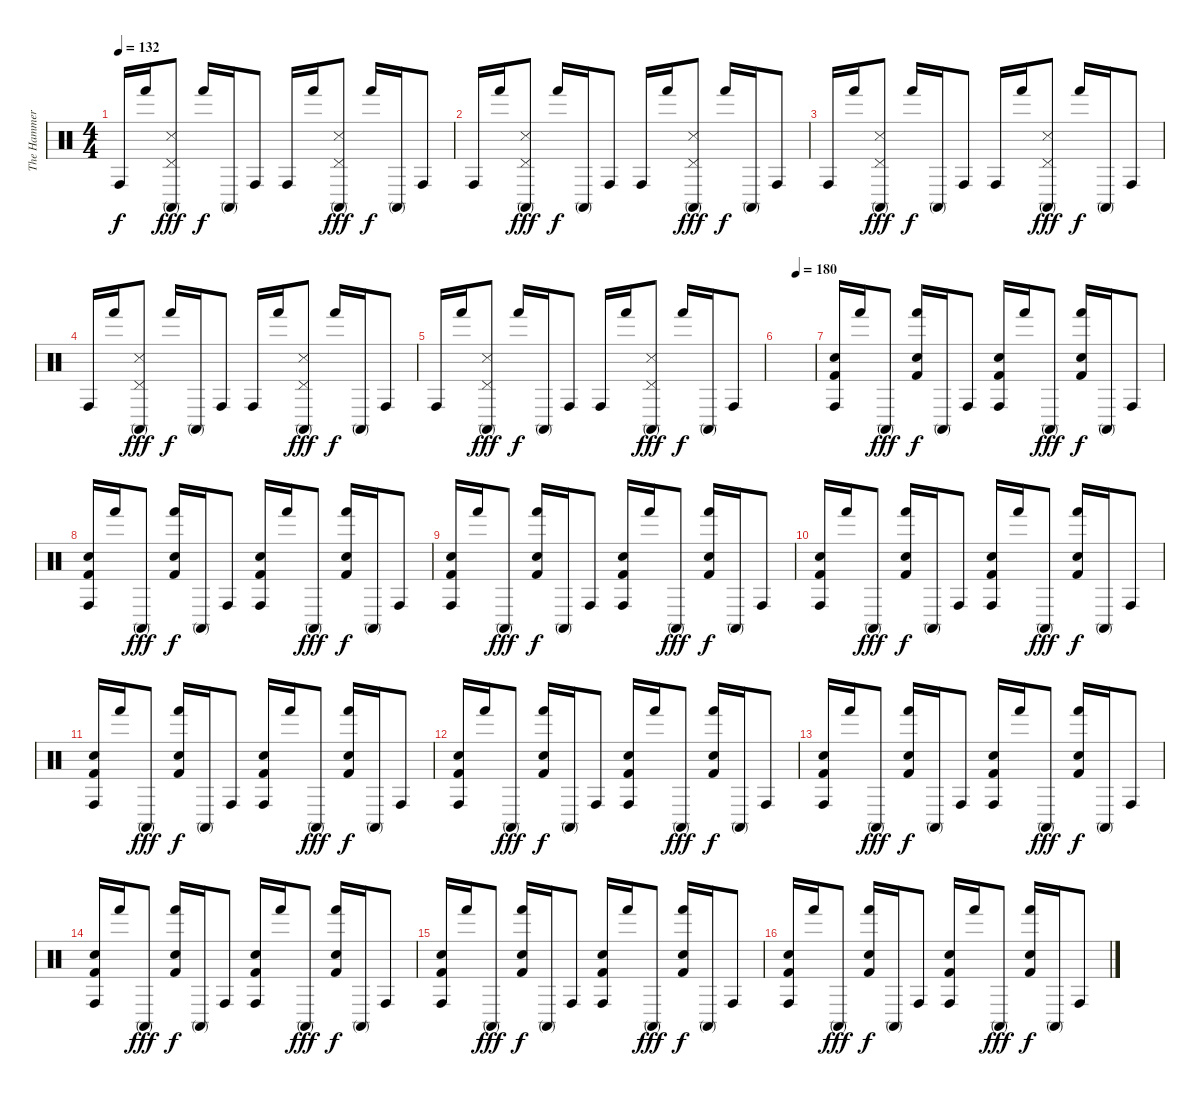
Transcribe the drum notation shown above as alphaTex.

\track ("The Hammer" "The Hammer") {instrument percussion}
\staff {score}
\articulation defaults
\ts (4 4)
\tempo 132
\clef neutral
\ks c "Conga high (hit)".16{dy f} "Hand (hit)".16
("Conga high (mute)" "Metronome (hit)" "Pedal Hi-Hat (hit)").8{dy fff} "Hand (hit)".16{dy f} "Conga high (mute)".16 "Conga high (hit)".8 "Conga high (hit)".16 "Hand (hit)".16 ("Conga high (mute)" "Metronome (hit)" "Pedal Hi-Hat (hit)").8{dy fff} "Hand (hit)".16{dy f} "Conga high (mute)".16 "Conga high (hit)".8 |
"Conga high (hit)".16 "Hand (hit)".16 ("Conga high (mute)" "Metronome (hit)" "Pedal Hi-Hat (hit)").8{dy fff} "Hand (hit)".16{dy f} "Conga high (mute)".16 "Conga high (hit)".8 "Conga high (hit)".16 "Hand (hit)".16 ("Conga high (mute)" "Metronome (hit)" "Pedal Hi-Hat (hit)").8{dy fff} "Hand (hit)".16{dy f} "Conga high (mute)".16 "Conga high (hit)".8 |
"Conga high (hit)".16 "Hand (hit)".16 ("Conga high (mute)" "Metronome (hit)" "Pedal Hi-Hat (hit)").8{dy fff} "Hand (hit)".16{dy f} "Conga high (mute)".16 "Conga high (hit)".8 "Conga high (hit)".16 "Hand (hit)".16 ("Conga high (mute)" "Metronome (hit)" "Pedal Hi-Hat (hit)").8{dy fff} "Hand (hit)".16{dy f} "Conga high (mute)".16 "Conga high (hit)".8 |
"Conga high (hit)".16 "Hand (hit)".16 ("Conga high (mute)" "Metronome (hit)" "Pedal Hi-Hat (hit)").8{dy fff} "Hand (hit)".16{dy f} "Conga high (mute)".16 "Conga high (hit)".8 "Conga high (hit)".16 "Hand (hit)".16 ("Conga high (mute)" "Metronome (hit)" "Pedal Hi-Hat (hit)").8{dy fff} "Hand (hit)".16{dy f} "Conga high (mute)".16 "Conga high (hit)".8 |
"Conga high (hit)".16 "Hand (hit)".16 ("Conga high (mute)" "Metronome (hit)" "Pedal Hi-Hat (hit)").8{dy fff} "Hand (hit)".16{dy f} "Conga high (mute)".16 "Conga high (hit)".8 "Conga high (hit)".16 "Hand (hit)".16 ("Conga high (mute)" "Metronome (hit)" "Pedal Hi-Hat (hit)").8{dy fff} "Hand (hit)".16{dy f} "Conga high (mute)".16 "Conga high (hit)".8 |
\tempo (180 0.5)
|
("Conga high (hit)" "Hand Clap (hit)" "Kick (hit) 2").16 "Hand (hit)".16 "Conga high (mute)".8{dy fff} ("Hand (hit)" "Hand Clap (hit)" "Kick (hit) 2").16{dy f} "Conga high (mute)".16 "Conga high (hit)".8 ("Conga high (hit)" "Hand Clap (hit)" "Kick (hit) 2").16 "Hand (hit)".16 "Conga high (mute)".8{dy fff} ("Hand (hit)" "Hand Clap (hit)" "Kick (hit) 2").16{dy f} "Conga high (mute)".16 "Conga high (hit)".8 |
("Conga high (hit)" "Hand Clap (hit)" "Kick (hit) 2").16 "Hand (hit)".16 "Conga high (mute)".8{dy fff} ("Hand (hit)" "Hand Clap (hit)" "Kick (hit) 2").16{dy f} "Conga high (mute)".16 "Conga high (hit)".8 ("Conga high (hit)" "Hand Clap (hit)" "Kick (hit) 2").16 "Hand (hit)".16 "Conga high (mute)".8{dy fff} ("Hand (hit)" "Hand Clap (hit)" "Kick (hit) 2").16{dy f} "Conga high (mute)".16 "Conga high (hit)".8 |
("Conga high (hit)" "Hand Clap (hit)" "Kick (hit) 2").16 "Hand (hit)".16 "Conga high (mute)".8{dy fff} ("Hand (hit)" "Hand Clap (hit)" "Kick (hit) 2").16{dy f} "Conga high (mute)".16 "Conga high (hit)".8 ("Conga high (hit)" "Hand Clap (hit)" "Kick (hit) 2").16 "Hand (hit)".16 "Conga high (mute)".8{dy fff} ("Hand (hit)" "Hand Clap (hit)" "Kick (hit) 2").16{dy f} "Conga high (mute)".16 "Conga high (hit)".8 |
("Conga high (hit)" "Hand Clap (hit)" "Kick (hit) 2").16 "Hand (hit)".16 "Conga high (mute)".8{dy fff} ("Hand (hit)" "Hand Clap (hit)" "Kick (hit) 2").16{dy f} "Conga high (mute)".16 "Conga high (hit)".8 ("Conga high (hit)" "Hand Clap (hit)" "Kick (hit) 2").16 "Hand (hit)".16 "Conga high (mute)".8{dy fff} ("Hand (hit)" "Hand Clap (hit)" "Kick (hit) 2").16{dy f} "Conga high (mute)".16 "Conga high (hit)".8 |
("Conga high (hit)" "Hand Clap (hit)" "Kick (hit) 2").16 "Hand (hit)".16 "Conga high (mute)".8{dy fff} ("Hand (hit)" "Hand Clap (hit)" "Kick (hit) 2").16{dy f} "Conga high (mute)".16 "Conga high (hit)".8 ("Conga high (hit)" "Hand Clap (hit)" "Kick (hit) 2").16 "Hand (hit)".16 "Conga high (mute)".8{dy fff} ("Hand (hit)" "Hand Clap (hit)" "Kick (hit) 2").16{dy f} "Conga high (mute)".16 "Conga high (hit)".8 |
("Conga high (hit)" "Hand Clap (hit)" "Kick (hit) 2").16 "Hand (hit)".16 "Conga high (mute)".8{dy fff} ("Hand (hit)" "Hand Clap (hit)" "Kick (hit) 2").16{dy f} "Conga high (mute)".16 "Conga high (hit)".8 ("Conga high (hit)" "Hand Clap (hit)" "Kick (hit) 2").16 "Hand (hit)".16 "Conga high (mute)".8{dy fff} ("Hand (hit)" "Hand Clap (hit)" "Kick (hit) 2").16{dy f} "Conga high (mute)".16 "Conga high (hit)".8 |
("Conga high (hit)" "Hand Clap (hit)" "Kick (hit) 2").16 "Hand (hit)".16 "Conga high (mute)".8{dy fff} ("Hand (hit)" "Hand Clap (hit)" "Kick (hit) 2").16{dy f} "Conga high (mute)".16 "Conga high (hit)".8 ("Conga high (hit)" "Hand Clap (hit)" "Kick (hit) 2").16 "Hand (hit)".16 "Conga high (mute)".8{dy fff} ("Hand (hit)" "Hand Clap (hit)" "Kick (hit) 2").16{dy f} "Conga high (mute)".16 "Conga high (hit)".8 |
("Conga high (hit)" "Hand Clap (hit)" "Kick (hit) 2").16 "Hand (hit)".16 "Conga high (mute)".8{dy fff} ("Hand (hit)" "Hand Clap (hit)" "Kick (hit) 2").16{dy f} "Conga high (mute)".16 "Conga high (hit)".8 ("Conga high (hit)" "Hand Clap (hit)" "Kick (hit) 2").16 "Hand (hit)".16 "Conga high (mute)".8{dy fff} ("Hand (hit)" "Hand Clap (hit)" "Kick (hit) 2").16{dy f} "Conga high (mute)".16 "Conga high (hit)".8 |
("Conga high (hit)" "Hand Clap (hit)" "Kick (hit) 2").16 "Hand (hit)".16 "Conga high (mute)".8{dy fff} ("Hand (hit)" "Hand Clap (hit)" "Kick (hit) 2").16{dy f} "Conga high (mute)".16 "Conga high (hit)".8 ("Conga high (hit)" "Hand Clap (hit)" "Kick (hit) 2").16 "Hand (hit)".16 "Conga high (mute)".8{dy fff} ("Hand (hit)" "Hand Clap (hit)" "Kick (hit) 2").16{dy f} "Conga high (mute)".16 "Conga high (hit)".8 |
("Conga high (hit)" "Hand Clap (hit)" "Kick (hit) 2").16 "Hand (hit)".16 "Conga high (mute)".8{dy fff} ("Hand (hit)" "Hand Clap (hit)" "Kick (hit) 2").16{dy f} "Conga high (mute)".16 "Conga high (hit)".8 ("Conga high (hit)" "Hand Clap (hit)" "Kick (hit) 2").16 "Hand (hit)".16 "Conga high (mute)".8{dy fff} ("Hand (hit)" "Hand Clap (hit)" "Kick (hit) 2").16{dy f} "Conga high (mute)".16 "Conga high (hit)".8
